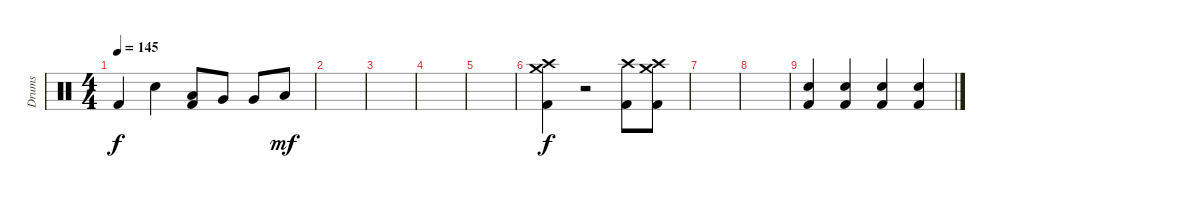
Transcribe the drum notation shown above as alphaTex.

\track ("Drums" "Drums") {instrument percussion}
\staff {score}
\articulation defaults
\ts (4 4)
\tempo 145
\clef neutral
\ks c "Kick (hit) 2".4{dy f} "Snare (hit) 2".4
("Low Tom (hit)" "Kick (hit) 2").8 "Very Low Tom (hit)".8 "Very Low Tom (hit)".8 "Low Floor Tom (hit)".8{dy mf} |
|
|
|
|
("Crash high (hit)" "Crash medium (hit)" "Kick (hit) 2").4{dy f} r.2 ("Crash high (hit)" "Kick (hit) 2").8 ("Crash high (hit)" "Crash medium (hit)" "Kick (hit) 2").8 |
|
|
("Snare (hit) 2" "Kick (hit) 2").4 ("Snare (hit) 2" "Kick (hit) 2").4 ("Snare (hit) 2" "Kick (hit) 2").4 ("Snare (hit) 2" "Kick (hit) 2").4
